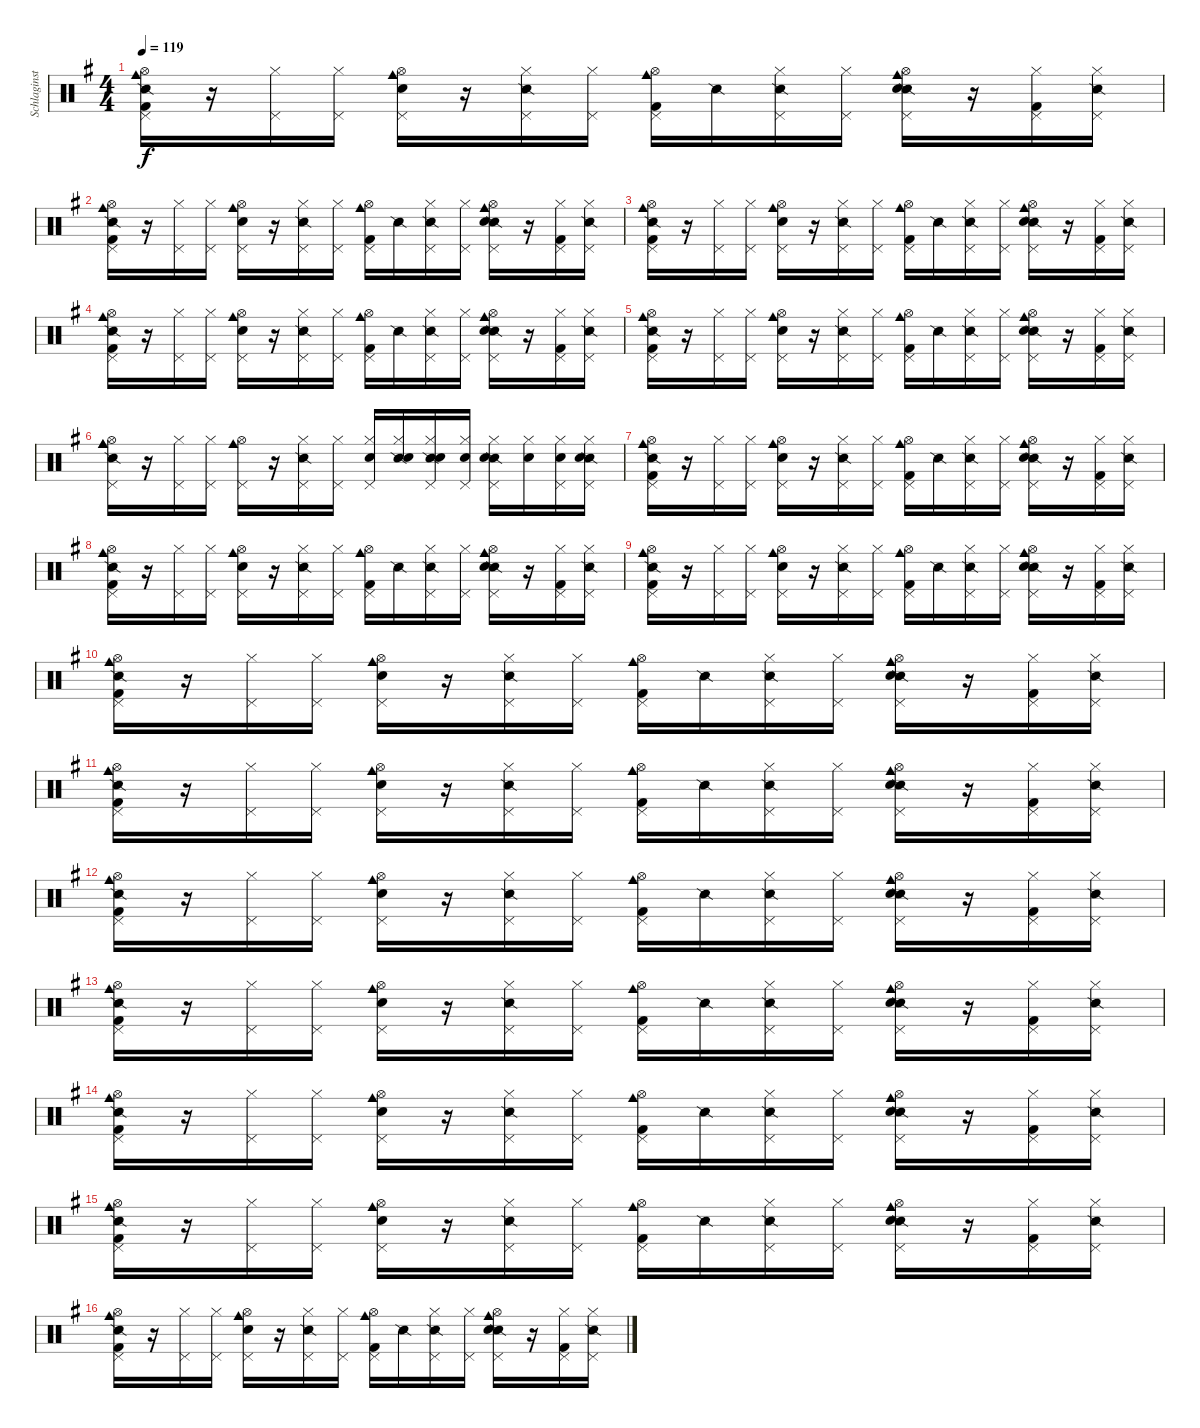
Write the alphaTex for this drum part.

\track ("Schlaginstrumente - Auswahl" "Schlaginst") {instrument percussion}
\staff {score}
\articulation defaults
\ts (4 4)
\tempo 119
\clef neutral
\ks g
("Pedal Hi-Hat (hit)" "Hi-Hat (open)" "Cowbell medium (hit)" "Snare (side stick) 2" "Kick (hit) 2").16{dy f} r.16 ("Pedal Hi-Hat (hit)" "Hi-Hat (closed)").16 ("Pedal Hi-Hat (hit)" "Hi-Hat (closed)").16 ("Pedal Hi-Hat (hit)" "Hi-Hat (open)" "Cowbell medium (hit)" "Snare (hit) 2").16 r.16 ("Pedal Hi-Hat (hit)" "Hi-Hat (closed)" "Snare (side stick) 2").16 ("Pedal Hi-Hat (hit)" "Hi-Hat (closed)").16 ("Pedal Hi-Hat (hit)" "Hi-Hat (open)" "Cowbell medium (hit)" "Kick (hit) 2").16 "Snare (side stick) 2".16 ("Pedal Hi-Hat (hit)" "Hi-Hat (closed)" "Snare (side stick) 2").16 ("Pedal Hi-Hat (hit)" "Hi-Hat (closed)").16 ("Pedal Hi-Hat (hit)" "Hi-Hat (open)" "Cowbell medium (hit)" "Snare (side stick) 2" "Snare (hit) 2").16 r.16 ("Pedal Hi-Hat (hit)" "Hi-Hat (closed)" "Kick (hit) 2").16 ("Pedal Hi-Hat (hit)" "Hi-Hat (closed)" "Snare (side stick) 2").16 |
("Pedal Hi-Hat (hit)" "Hi-Hat (open)" "Cowbell medium (hit)" "Snare (side stick) 2" "Kick (hit) 2").16 r.16 ("Pedal Hi-Hat (hit)" "Hi-Hat (closed)").16 ("Pedal Hi-Hat (hit)" "Hi-Hat (closed)").16 ("Pedal Hi-Hat (hit)" "Hi-Hat (open)" "Cowbell medium (hit)" "Snare (hit) 2").16 r.16 ("Pedal Hi-Hat (hit)" "Hi-Hat (closed)" "Snare (side stick) 2").16 ("Pedal Hi-Hat (hit)" "Hi-Hat (closed)").16 ("Pedal Hi-Hat (hit)" "Hi-Hat (open)" "Cowbell medium (hit)" "Kick (hit) 2").16 "Snare (side stick) 2".16 ("Pedal Hi-Hat (hit)" "Hi-Hat (closed)" "Snare (side stick) 2").16 ("Pedal Hi-Hat (hit)" "Hi-Hat (closed)").16 ("Pedal Hi-Hat (hit)" "Hi-Hat (open)" "Cowbell medium (hit)" "Snare (side stick) 2" "Snare (hit) 2").16 r.16 ("Pedal Hi-Hat (hit)" "Hi-Hat (closed)" "Kick (hit) 2").16 ("Pedal Hi-Hat (hit)" "Hi-Hat (closed)" "Snare (side stick) 2").16 |
("Pedal Hi-Hat (hit)" "Hi-Hat (open)" "Cowbell medium (hit)" "Snare (side stick) 2" "Kick (hit) 2").16 r.16 ("Pedal Hi-Hat (hit)" "Hi-Hat (closed)").16 ("Pedal Hi-Hat (hit)" "Hi-Hat (closed)").16 ("Pedal Hi-Hat (hit)" "Hi-Hat (open)" "Cowbell medium (hit)" "Snare (hit) 2").16 r.16 ("Pedal Hi-Hat (hit)" "Hi-Hat (closed)" "Snare (side stick) 2").16 ("Pedal Hi-Hat (hit)" "Hi-Hat (closed)").16 ("Pedal Hi-Hat (hit)" "Hi-Hat (open)" "Cowbell medium (hit)" "Kick (hit) 2").16 "Snare (side stick) 2".16 ("Pedal Hi-Hat (hit)" "Hi-Hat (closed)" "Snare (side stick) 2").16 ("Pedal Hi-Hat (hit)" "Hi-Hat (closed)").16 ("Pedal Hi-Hat (hit)" "Hi-Hat (open)" "Cowbell medium (hit)" "Snare (side stick) 2" "Snare (hit) 2").16 r.16 ("Pedal Hi-Hat (hit)" "Hi-Hat (closed)" "Kick (hit) 2").16 ("Pedal Hi-Hat (hit)" "Hi-Hat (closed)" "Snare (side stick) 2").16 |
("Pedal Hi-Hat (hit)" "Hi-Hat (open)" "Cowbell medium (hit)" "Snare (side stick) 2" "Kick (hit) 2").16 r.16 ("Pedal Hi-Hat (hit)" "Hi-Hat (closed)").16 ("Pedal Hi-Hat (hit)" "Hi-Hat (closed)").16 ("Pedal Hi-Hat (hit)" "Hi-Hat (open)" "Cowbell medium (hit)" "Snare (hit) 2").16 r.16 ("Pedal Hi-Hat (hit)" "Hi-Hat (closed)" "Snare (side stick) 2").16 ("Pedal Hi-Hat (hit)" "Hi-Hat (closed)").16 ("Pedal Hi-Hat (hit)" "Hi-Hat (open)" "Cowbell medium (hit)" "Kick (hit) 2").16 "Snare (side stick) 2".16 ("Pedal Hi-Hat (hit)" "Hi-Hat (closed)" "Snare (side stick) 2").16 ("Pedal Hi-Hat (hit)" "Hi-Hat (closed)").16 ("Pedal Hi-Hat (hit)" "Hi-Hat (open)" "Cowbell medium (hit)" "Snare (side stick) 2" "Snare (hit) 2").16 r.16 ("Pedal Hi-Hat (hit)" "Hi-Hat (closed)" "Kick (hit) 2").16 ("Pedal Hi-Hat (hit)" "Hi-Hat (closed)" "Snare (side stick) 2").16 |
("Pedal Hi-Hat (hit)" "Hi-Hat (open)" "Cowbell medium (hit)" "Snare (side stick) 2" "Kick (hit) 2").16 r.16 ("Pedal Hi-Hat (hit)" "Hi-Hat (closed)").16 ("Pedal Hi-Hat (hit)" "Hi-Hat (closed)").16 ("Pedal Hi-Hat (hit)" "Hi-Hat (open)" "Cowbell medium (hit)" "Snare (hit) 2").16 r.16 ("Pedal Hi-Hat (hit)" "Hi-Hat (closed)" "Snare (side stick) 2").16 ("Pedal Hi-Hat (hit)" "Hi-Hat (closed)").16 ("Pedal Hi-Hat (hit)" "Hi-Hat (open)" "Cowbell medium (hit)" "Kick (hit) 2").16 "Snare (side stick) 2".16 ("Pedal Hi-Hat (hit)" "Hi-Hat (closed)" "Snare (side stick) 2").16 ("Pedal Hi-Hat (hit)" "Hi-Hat (closed)").16 ("Pedal Hi-Hat (hit)" "Hi-Hat (open)" "Cowbell medium (hit)" "Snare (side stick) 2" "Snare (hit) 2").16 r.16 ("Pedal Hi-Hat (hit)" "Hi-Hat (closed)" "Kick (hit) 2").16 ("Pedal Hi-Hat (hit)" "Hi-Hat (closed)" "Snare (side stick) 2").16 |
("Pedal Hi-Hat (hit)" "Hi-Hat (open)" "Cowbell medium (hit)" "Snare (side stick) 2" "Cowbell medium (hit)").16 r.16 ("Pedal Hi-Hat (hit)" "Hi-Hat (closed)").16 ("Pedal Hi-Hat (hit)" "Hi-Hat (closed)").16 ("Pedal Hi-Hat (hit)" "Hi-Hat (open)" "Cowbell medium (hit)").16 r.16 ("Pedal Hi-Hat (hit)" "Hi-Hat (closed)" "Snare (side stick) 2").16 ("Pedal Hi-Hat (hit)" "Hi-Hat (closed)").16 ("Hi-Hat (closed)" "Pedal Hi-Hat (hit)" "Snare (hit) 2").16 ("Hi-Hat (closed)" "Snare (side stick) 2" "Snare (hit) 2").16 ("Pedal Hi-Hat (hit)" "Hi-Hat (closed)" "Snare (side stick) 2" "Snare (hit) 2").16 ("Pedal Hi-Hat (hit)" "Hi-Hat (closed)" "Snare (hit) 2").16 ("Hi-Hat (closed)" "Pedal Hi-Hat (hit)" "Snare (side stick) 2" "Electric Snare (hit)").16 ("Hi-Hat (closed)" "Electric Snare (hit)").16 ("Pedal Hi-Hat (hit)" "Hi-Hat (closed)" "Electric Snare (hit)").16 ("Pedal Hi-Hat (hit)" "Hi-Hat (closed)" "Snare (side stick) 2" "Electric Snare (hit)").16 |
("Pedal Hi-Hat (hit)" "Hi-Hat (open)" "Cowbell medium (hit)" "Snare (side stick) 2" "Kick (hit) 2").16 r.16 ("Pedal Hi-Hat (hit)" "Hi-Hat (closed)").16 ("Pedal Hi-Hat (hit)" "Hi-Hat (closed)").16 ("Pedal Hi-Hat (hit)" "Hi-Hat (open)" "Cowbell medium (hit)" "Snare (hit) 2").16 r.16 ("Pedal Hi-Hat (hit)" "Hi-Hat (closed)" "Snare (side stick) 2").16 ("Pedal Hi-Hat (hit)" "Hi-Hat (closed)").16 ("Pedal Hi-Hat (hit)" "Hi-Hat (open)" "Cowbell medium (hit)" "Kick (hit) 2").16 "Snare (side stick) 2".16 ("Pedal Hi-Hat (hit)" "Hi-Hat (closed)" "Snare (side stick) 2").16 ("Pedal Hi-Hat (hit)" "Hi-Hat (closed)").16 ("Pedal Hi-Hat (hit)" "Hi-Hat (open)" "Cowbell medium (hit)" "Snare (side stick) 2" "Snare (hit) 2").16 r.16 ("Pedal Hi-Hat (hit)" "Hi-Hat (closed)" "Kick (hit) 2").16 ("Pedal Hi-Hat (hit)" "Hi-Hat (closed)" "Snare (side stick) 2").16 |
("Pedal Hi-Hat (hit)" "Hi-Hat (open)" "Cowbell medium (hit)" "Snare (side stick) 2" "Kick (hit) 2").16 r.16 ("Pedal Hi-Hat (hit)" "Hi-Hat (closed)").16 ("Pedal Hi-Hat (hit)" "Hi-Hat (closed)").16 ("Pedal Hi-Hat (hit)" "Hi-Hat (open)" "Cowbell medium (hit)" "Snare (hit) 2").16 r.16 ("Pedal Hi-Hat (hit)" "Hi-Hat (closed)" "Snare (side stick) 2").16 ("Pedal Hi-Hat (hit)" "Hi-Hat (closed)").16 ("Pedal Hi-Hat (hit)" "Hi-Hat (open)" "Cowbell medium (hit)" "Kick (hit) 2").16 "Snare (side stick) 2".16 ("Pedal Hi-Hat (hit)" "Hi-Hat (closed)" "Snare (side stick) 2").16 ("Pedal Hi-Hat (hit)" "Hi-Hat (closed)").16 ("Pedal Hi-Hat (hit)" "Hi-Hat (open)" "Cowbell medium (hit)" "Snare (side stick) 2" "Snare (hit) 2").16 r.16 ("Pedal Hi-Hat (hit)" "Hi-Hat (closed)" "Kick (hit) 2").16 ("Pedal Hi-Hat (hit)" "Hi-Hat (closed)" "Snare (side stick) 2").16 |
("Pedal Hi-Hat (hit)" "Hi-Hat (open)" "Cowbell medium (hit)" "Snare (side stick) 2" "Kick (hit) 2").16 r.16 ("Pedal Hi-Hat (hit)" "Hi-Hat (closed)").16 ("Pedal Hi-Hat (hit)" "Hi-Hat (closed)").16 ("Pedal Hi-Hat (hit)" "Hi-Hat (open)" "Cowbell medium (hit)" "Snare (hit) 2").16 r.16 ("Pedal Hi-Hat (hit)" "Hi-Hat (closed)" "Snare (side stick) 2").16 ("Pedal Hi-Hat (hit)" "Hi-Hat (closed)").16 ("Pedal Hi-Hat (hit)" "Hi-Hat (open)" "Cowbell medium (hit)" "Kick (hit) 2").16 "Snare (side stick) 2".16 ("Pedal Hi-Hat (hit)" "Hi-Hat (closed)" "Snare (side stick) 2").16 ("Pedal Hi-Hat (hit)" "Hi-Hat (closed)").16 ("Pedal Hi-Hat (hit)" "Hi-Hat (open)" "Cowbell medium (hit)" "Snare (side stick) 2" "Snare (hit) 2").16 r.16 ("Pedal Hi-Hat (hit)" "Hi-Hat (closed)" "Kick (hit) 2").16 ("Pedal Hi-Hat (hit)" "Hi-Hat (closed)" "Snare (side stick) 2").16 |
("Pedal Hi-Hat (hit)" "Hi-Hat (open)" "Cowbell medium (hit)" "Snare (side stick) 2" "Kick (hit) 2").16 r.16 ("Pedal Hi-Hat (hit)" "Hi-Hat (closed)").16 ("Pedal Hi-Hat (hit)" "Hi-Hat (closed)").16 ("Pedal Hi-Hat (hit)" "Hi-Hat (open)" "Cowbell medium (hit)" "Snare (hit) 2").16 r.16 ("Pedal Hi-Hat (hit)" "Hi-Hat (closed)" "Snare (side stick) 2").16 ("Pedal Hi-Hat (hit)" "Hi-Hat (closed)").16 ("Pedal Hi-Hat (hit)" "Hi-Hat (open)" "Cowbell medium (hit)" "Kick (hit) 2").16 "Snare (side stick) 2".16 ("Pedal Hi-Hat (hit)" "Hi-Hat (closed)" "Snare (side stick) 2").16 ("Pedal Hi-Hat (hit)" "Hi-Hat (closed)").16 ("Pedal Hi-Hat (hit)" "Hi-Hat (open)" "Cowbell medium (hit)" "Snare (side stick) 2" "Snare (hit) 2").16 r.16 ("Pedal Hi-Hat (hit)" "Hi-Hat (closed)" "Kick (hit) 2").16 ("Pedal Hi-Hat (hit)" "Hi-Hat (closed)" "Snare (side stick) 2").16 |
("Pedal Hi-Hat (hit)" "Hi-Hat (open)" "Cowbell medium (hit)" "Snare (side stick) 2" "Kick (hit) 2").16 r.16 ("Pedal Hi-Hat (hit)" "Hi-Hat (closed)").16 ("Pedal Hi-Hat (hit)" "Hi-Hat (closed)").16 ("Pedal Hi-Hat (hit)" "Hi-Hat (open)" "Cowbell medium (hit)" "Snare (hit) 2").16 r.16 ("Pedal Hi-Hat (hit)" "Hi-Hat (closed)" "Snare (side stick) 2").16 ("Pedal Hi-Hat (hit)" "Hi-Hat (closed)").16 ("Pedal Hi-Hat (hit)" "Hi-Hat (open)" "Cowbell medium (hit)" "Kick (hit) 2").16 "Snare (side stick) 2".16 ("Pedal Hi-Hat (hit)" "Hi-Hat (closed)" "Snare (side stick) 2").16 ("Pedal Hi-Hat (hit)" "Hi-Hat (closed)").16 ("Pedal Hi-Hat (hit)" "Hi-Hat (open)" "Cowbell medium (hit)" "Snare (side stick) 2" "Snare (hit) 2").16 r.16 ("Pedal Hi-Hat (hit)" "Hi-Hat (closed)" "Kick (hit) 2").16 ("Pedal Hi-Hat (hit)" "Hi-Hat (closed)" "Snare (side stick) 2").16 |
("Pedal Hi-Hat (hit)" "Hi-Hat (open)" "Cowbell medium (hit)" "Snare (side stick) 2" "Kick (hit) 2").16 r.16 ("Pedal Hi-Hat (hit)" "Hi-Hat (closed)").16 ("Pedal Hi-Hat (hit)" "Hi-Hat (closed)").16 ("Pedal Hi-Hat (hit)" "Hi-Hat (open)" "Cowbell medium (hit)" "Snare (hit) 2").16 r.16 ("Pedal Hi-Hat (hit)" "Hi-Hat (closed)" "Snare (side stick) 2").16 ("Pedal Hi-Hat (hit)" "Hi-Hat (closed)").16 ("Pedal Hi-Hat (hit)" "Hi-Hat (open)" "Cowbell medium (hit)" "Kick (hit) 2").16 "Snare (side stick) 2".16 ("Pedal Hi-Hat (hit)" "Hi-Hat (closed)" "Snare (side stick) 2").16 ("Pedal Hi-Hat (hit)" "Hi-Hat (closed)").16 ("Pedal Hi-Hat (hit)" "Hi-Hat (open)" "Cowbell medium (hit)" "Snare (side stick) 2" "Snare (hit) 2").16 r.16 ("Pedal Hi-Hat (hit)" "Hi-Hat (closed)" "Kick (hit) 2").16 ("Pedal Hi-Hat (hit)" "Hi-Hat (closed)" "Snare (side stick) 2").16 |
("Pedal Hi-Hat (hit)" "Hi-Hat (open)" "Cowbell medium (hit)" "Snare (side stick) 2" "Kick (hit) 2").16 r.16 ("Pedal Hi-Hat (hit)" "Hi-Hat (closed)").16 ("Pedal Hi-Hat (hit)" "Hi-Hat (closed)").16 ("Pedal Hi-Hat (hit)" "Hi-Hat (open)" "Cowbell medium (hit)" "Snare (hit) 2").16 r.16 ("Pedal Hi-Hat (hit)" "Hi-Hat (closed)" "Snare (side stick) 2").16 ("Pedal Hi-Hat (hit)" "Hi-Hat (closed)").16 ("Pedal Hi-Hat (hit)" "Hi-Hat (open)" "Cowbell medium (hit)" "Kick (hit) 2").16 "Snare (side stick) 2".16 ("Pedal Hi-Hat (hit)" "Hi-Hat (closed)" "Snare (side stick) 2").16 ("Pedal Hi-Hat (hit)" "Hi-Hat (closed)").16 ("Pedal Hi-Hat (hit)" "Hi-Hat (open)" "Cowbell medium (hit)" "Snare (side stick) 2" "Snare (hit) 2").16 r.16 ("Pedal Hi-Hat (hit)" "Hi-Hat (closed)" "Kick (hit) 2").16 ("Pedal Hi-Hat (hit)" "Hi-Hat (closed)" "Snare (side stick) 2").16 |
("Pedal Hi-Hat (hit)" "Hi-Hat (open)" "Cowbell medium (hit)" "Snare (side stick) 2" "Kick (hit) 2").16 r.16 ("Pedal Hi-Hat (hit)" "Hi-Hat (closed)").16 ("Pedal Hi-Hat (hit)" "Hi-Hat (closed)").16 ("Pedal Hi-Hat (hit)" "Hi-Hat (open)" "Cowbell medium (hit)" "Snare (hit) 2").16 r.16 ("Pedal Hi-Hat (hit)" "Hi-Hat (closed)" "Snare (side stick) 2").16 ("Pedal Hi-Hat (hit)" "Hi-Hat (closed)").16 ("Pedal Hi-Hat (hit)" "Hi-Hat (open)" "Cowbell medium (hit)" "Kick (hit) 2").16 "Snare (side stick) 2".16 ("Pedal Hi-Hat (hit)" "Hi-Hat (closed)" "Snare (side stick) 2").16 ("Pedal Hi-Hat (hit)" "Hi-Hat (closed)").16 ("Pedal Hi-Hat (hit)" "Hi-Hat (open)" "Cowbell medium (hit)" "Snare (side stick) 2" "Snare (hit) 2").16 r.16 ("Pedal Hi-Hat (hit)" "Hi-Hat (closed)" "Kick (hit) 2").16 ("Pedal Hi-Hat (hit)" "Hi-Hat (closed)" "Snare (side stick) 2").16 |
("Pedal Hi-Hat (hit)" "Hi-Hat (open)" "Cowbell medium (hit)" "Snare (side stick) 2" "Kick (hit) 2").16 r.16 ("Pedal Hi-Hat (hit)" "Hi-Hat (closed)").16 ("Pedal Hi-Hat (hit)" "Hi-Hat (closed)").16 ("Pedal Hi-Hat (hit)" "Hi-Hat (open)" "Cowbell medium (hit)" "Snare (hit) 2").16 r.16 ("Pedal Hi-Hat (hit)" "Hi-Hat (closed)" "Snare (side stick) 2").16 ("Pedal Hi-Hat (hit)" "Hi-Hat (closed)").16 ("Pedal Hi-Hat (hit)" "Hi-Hat (open)" "Cowbell medium (hit)" "Kick (hit) 2").16 "Snare (side stick) 2".16 ("Pedal Hi-Hat (hit)" "Hi-Hat (closed)" "Snare (side stick) 2").16 ("Pedal Hi-Hat (hit)" "Hi-Hat (closed)").16 ("Pedal Hi-Hat (hit)" "Hi-Hat (open)" "Cowbell medium (hit)" "Snare (side stick) 2" "Snare (hit) 2").16 r.16 ("Pedal Hi-Hat (hit)" "Hi-Hat (closed)" "Kick (hit) 2").16 ("Pedal Hi-Hat (hit)" "Hi-Hat (closed)" "Snare (side stick) 2").16 |
("Pedal Hi-Hat (hit)" "Hi-Hat (open)" "Cowbell medium (hit)" "Snare (side stick) 2" "Kick (hit) 2").16 r.16 ("Pedal Hi-Hat (hit)" "Hi-Hat (closed)").16 ("Pedal Hi-Hat (hit)" "Hi-Hat (closed)").16 ("Pedal Hi-Hat (hit)" "Hi-Hat (open)" "Cowbell medium (hit)" "Snare (hit) 2").16 r.16 ("Pedal Hi-Hat (hit)" "Hi-Hat (closed)" "Snare (side stick) 2").16 ("Pedal Hi-Hat (hit)" "Hi-Hat (closed)").16 ("Pedal Hi-Hat (hit)" "Hi-Hat (open)" "Cowbell medium (hit)" "Kick (hit) 2").16 "Snare (side stick) 2".16 ("Pedal Hi-Hat (hit)" "Hi-Hat (closed)" "Snare (side stick) 2").16 ("Pedal Hi-Hat (hit)" "Hi-Hat (closed)").16 ("Pedal Hi-Hat (hit)" "Hi-Hat (open)" "Cowbell medium (hit)" "Snare (side stick) 2" "Snare (hit) 2").16 r.16 ("Pedal Hi-Hat (hit)" "Hi-Hat (closed)" "Kick (hit) 2").16 ("Pedal Hi-Hat (hit)" "Hi-Hat (closed)" "Snare (side stick) 2").16
